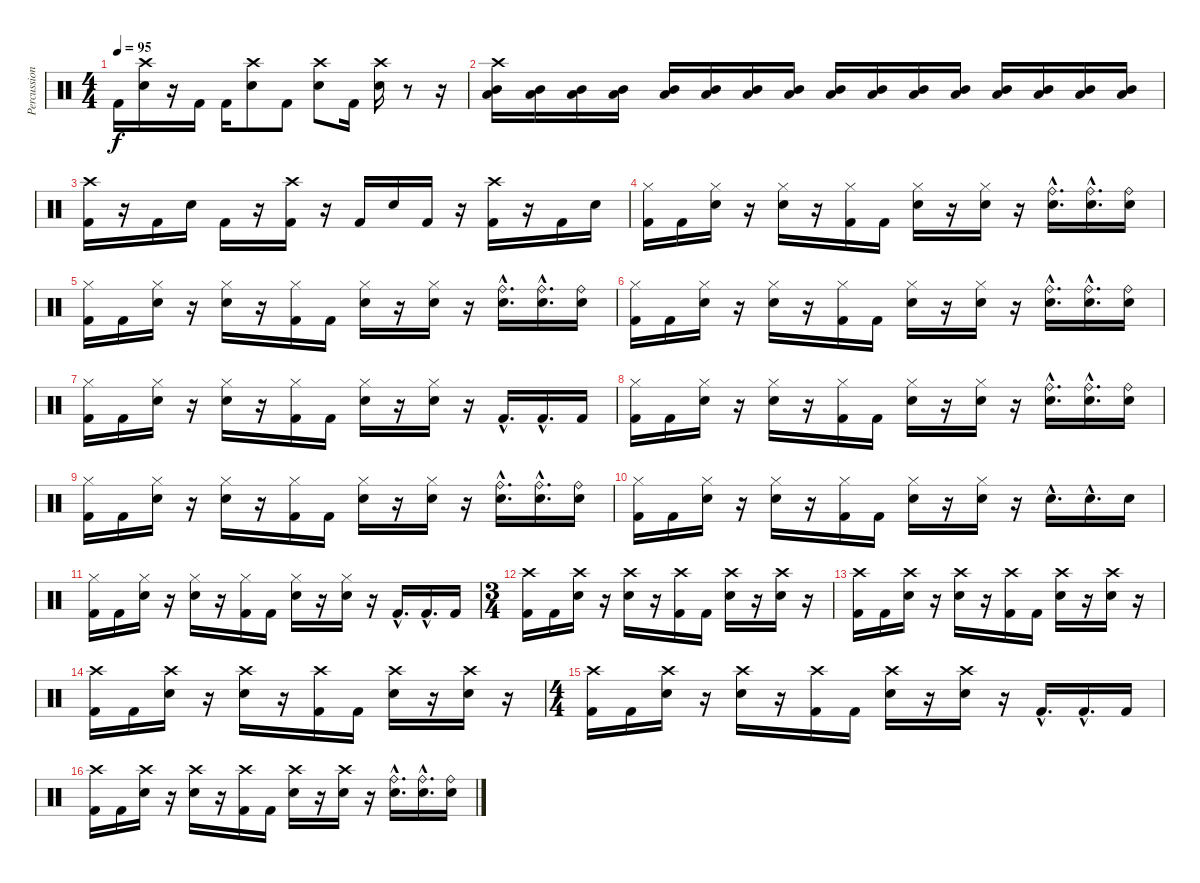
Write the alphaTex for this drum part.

\track ("Percussion" "Percussion") {instrument percussion}
\staff {score}
\articulation defaults
\ts (4 4)
\tempo 95
\clef neutral
\ks c "Kick (hit) 2".16{dy f}
("Crash high (hit)" "Electric Snare (hit)").16 r.16 "Kick (hit) 2".16 "Kick (hit) 2".16 ("Crash high (hit)" "Electric Snare (hit)").8 "Kick (hit) 2".8 ("Crash high (hit)" "Electric Snare (hit)").8 "Kick (hit) 2".16 ("Crash high (hit)" "Electric Snare (hit)").16 r.8 r.16 |
("Crash high (hit)" "Mid Tom (hit)" "Low Tom (hit)").16 ("Mid Tom (hit)" "Low Tom (hit)").16 ("Mid Tom (hit)" "Low Tom (hit)").16 ("Mid Tom (hit)" "Low Tom (hit)").16 ("Mid Tom (hit)" "Low Tom (hit)").16 ("Mid Tom (hit)" "Low Tom (hit)").16 ("Mid Tom (hit)" "Low Tom (hit)").16 ("Mid Tom (hit)" "Low Tom (hit)").16 ("Mid Tom (hit)" "Low Tom (hit)").16 ("Mid Tom (hit)" "Low Tom (hit)").16 ("Mid Tom (hit)" "Low Tom (hit)").16 ("Mid Tom (hit)" "Low Tom (hit)").16 ("Mid Tom (hit)" "Low Tom (hit)").16 ("Mid Tom (hit)" "Low Tom (hit)").16 ("Mid Tom (hit)" "Low Tom (hit)").16 ("Mid Tom (hit)" "Low Tom (hit)").16 |
("Crash high (hit)" "Kick (hit) 2").16 r.16 "Kick (hit) 2".16 "Electric Snare (hit)".16 "Kick (hit) 2".16 r.16 ("Crash high (hit)" "Kick (hit) 2").16 r.16 "Kick (hit) 2".16 "Electric Snare (hit)".16 "Kick (hit) 2".16 r.16 ("Crash high (hit)" "Kick (hit) 2").16 r.16 "Kick (hit) 2".16 "Electric Snare (hit)".16 |
("Hi-Hat (closed)" "Kick (hit) 2").16{volume 7} "Kick (hit) 2".16 ("Hi-Hat (closed)" "Electric Snare (hit)").16 r.16 ("Hi-Hat (closed)" "Electric Snare (hit)").16 r.16 ("Hi-Hat (closed)" "Kick (hit) 2").16 "Kick (hit) 2".16 ("Hi-Hat (closed)" "Electric Snare (hit)").16 r.16 ("Hi-Hat (closed)" "Electric Snare (hit)").16 r.16 ("Ride (bell)"{hac} "Snare (hit) 2"{hac}).16{d} ("Ride (bell)"{hac} "Snare (hit) 2"{hac}).16{d} ("Ride (bell)" "Snare (hit) 2").16 |
("Hi-Hat (closed)" "Kick (hit) 2").16 "Kick (hit) 2".16 ("Hi-Hat (closed)" "Electric Snare (hit)").16 r.16 ("Hi-Hat (closed)" "Electric Snare (hit)").16 r.16 ("Hi-Hat (closed)" "Kick (hit) 2").16 "Kick (hit) 2".16 ("Hi-Hat (closed)" "Electric Snare (hit)").16 r.16 ("Hi-Hat (closed)" "Electric Snare (hit)").16 r.16 ("Ride (bell)"{hac} "Snare (hit) 2"{hac}).16{d} ("Ride (bell)"{hac} "Snare (hit) 2"{hac}).16{d} ("Ride (bell)" "Snare (hit) 2").16 |
("Hi-Hat (closed)" "Kick (hit) 2").16 "Kick (hit) 2".16 ("Hi-Hat (closed)" "Electric Snare (hit)").16 r.16 ("Hi-Hat (closed)" "Electric Snare (hit)").16 r.16 ("Hi-Hat (closed)" "Kick (hit) 2").16 "Kick (hit) 2".16 ("Hi-Hat (closed)" "Electric Snare (hit)").16 r.16 ("Hi-Hat (closed)" "Electric Snare (hit)").16 r.16 ("Ride (bell)"{hac} "Snare (hit) 2"{hac}).16{d} ("Ride (bell)"{hac} "Snare (hit) 2"{hac}).16{d} ("Ride (bell)" "Snare (hit) 2").16 |
("Hi-Hat (closed)" "Kick (hit) 2").16 "Kick (hit) 2".16 ("Hi-Hat (closed)" "Electric Snare (hit)").16 r.16 ("Hi-Hat (closed)" "Electric Snare (hit)").16 r.16 ("Hi-Hat (closed)" "Kick (hit) 2").16 "Kick (hit) 2".16 ("Hi-Hat (closed)" "Electric Snare (hit)").16 r.16 ("Hi-Hat (closed)" "Electric Snare (hit)").16 r.16 "Kick (hit) 2"{hac}.16{d} "Kick (hit) 2"{hac}.16{d} "Kick (hit) 2".16 |
("Hi-Hat (closed)" "Kick (hit) 2").16{volume 7} "Kick (hit) 2".16 ("Hi-Hat (closed)" "Electric Snare (hit)").16 r.16 ("Hi-Hat (closed)" "Electric Snare (hit)").16 r.16 ("Hi-Hat (closed)" "Kick (hit) 2").16 "Kick (hit) 2".16 ("Hi-Hat (closed)" "Electric Snare (hit)").16 r.16 ("Hi-Hat (closed)" "Electric Snare (hit)").16 r.16 ("Ride (bell)"{hac} "Snare (hit) 2"{hac}).16{d} ("Ride (bell)"{hac} "Snare (hit) 2"{hac}).16{d} ("Ride (bell)" "Snare (hit) 2").16 |
("Hi-Hat (closed)" "Kick (hit) 2").16 "Kick (hit) 2".16 ("Hi-Hat (closed)" "Electric Snare (hit)").16 r.16 ("Hi-Hat (closed)" "Electric Snare (hit)").16 r.16 ("Hi-Hat (closed)" "Kick (hit) 2").16 "Kick (hit) 2".16 ("Hi-Hat (closed)" "Electric Snare (hit)").16 r.16 ("Hi-Hat (closed)" "Electric Snare (hit)").16 r.16 ("Ride (bell)"{hac} "Snare (hit) 2"{hac}).16{d} ("Ride (bell)"{hac} "Snare (hit) 2"{hac}).16{d} ("Ride (bell)" "Snare (hit) 2").16 |
("Hi-Hat (closed)" "Kick (hit) 2").16{volume 13} "Kick (hit) 2".16 ("Hi-Hat (closed)" "Electric Snare (hit)").16 r.16 ("Hi-Hat (closed)" "Electric Snare (hit)").16 r.16 ("Hi-Hat (closed)" "Kick (hit) 2").16 "Kick (hit) 2".16 ("Hi-Hat (closed)" "Electric Snare (hit)").16 r.16 ("Hi-Hat (closed)" "Electric Snare (hit)").16 r.16 "Electric Snare (hit)"{hac}.16{d} "Electric Snare (hit)"{hac}.16{d} "Electric Snare (hit)".16 |
("Hi-Hat (closed)" "Kick (hit) 2").16 "Kick (hit) 2".16 ("Hi-Hat (closed)" "Electric Snare (hit)").16 r.16 ("Hi-Hat (closed)" "Electric Snare (hit)").16 r.16 ("Hi-Hat (closed)" "Kick (hit) 2").16 "Kick (hit) 2".16 ("Hi-Hat (closed)" "Electric Snare (hit)").16 r.16 ("Hi-Hat (closed)" "Electric Snare (hit)").16 r.16 "Kick (hit) 2"{hac}.16{d} "Kick (hit) 2"{hac}.16{d} "Kick (hit) 2".16 |
\ts (3 4)
("Crash high (hit)" "Kick (hit) 2").16 "Kick (hit) 2".16 ("Crash high (hit)" "Electric Snare (hit)").16 r.16 ("Crash high (hit)" "Electric Snare (hit)").16 r.16 ("Crash high (hit)" "Kick (hit) 2").16 "Kick (hit) 2".16 ("Crash high (hit)" "Electric Snare (hit)").16 r.16 ("Crash high (hit)" "Electric Snare (hit)").16 r.16 |
("Crash high (hit)" "Kick (hit) 2").16 "Kick (hit) 2".16 ("Crash high (hit)" "Electric Snare (hit)").16 r.16 ("Crash high (hit)" "Electric Snare (hit)").16 r.16 ("Crash high (hit)" "Kick (hit) 2").16 "Kick (hit) 2".16 ("Crash high (hit)" "Electric Snare (hit)").16 r.16 ("Crash high (hit)" "Electric Snare (hit)").16 r.16 |
("Crash high (hit)" "Kick (hit) 2").16 "Kick (hit) 2".16 ("Crash high (hit)" "Electric Snare (hit)").16 r.16 ("Crash high (hit)" "Electric Snare (hit)").16 r.16 ("Crash high (hit)" "Kick (hit) 2").16 "Kick (hit) 2".16 ("Crash high (hit)" "Electric Snare (hit)").16 r.16 ("Crash high (hit)" "Electric Snare (hit)").16 r.16 |
\ts (4 4)
("Crash high (hit)" "Kick (hit) 2").16 "Kick (hit) 2".16 ("Crash high (hit)" "Electric Snare (hit)").16 r.16 ("Crash high (hit)" "Electric Snare (hit)").16 r.16 ("Crash high (hit)" "Kick (hit) 2").16 "Kick (hit) 2".16 ("Crash high (hit)" "Electric Snare (hit)").16 r.16 ("Crash high (hit)" "Electric Snare (hit)").16 r.16 "Kick (hit) 2"{hac}.16{d} "Kick (hit) 2"{hac}.16{d} "Kick (hit) 2".16 |
("Crash high (hit)" "Kick (hit) 2").16 "Kick (hit) 2".16 ("Crash high (hit)" "Electric Snare (hit)").16 r.16 ("Crash high (hit)" "Electric Snare (hit)").16 r.16 ("Crash high (hit)" "Kick (hit) 2").16 "Kick (hit) 2".16 ("Crash high (hit)" "Electric Snare (hit)").16 r.16 ("Crash high (hit)" "Electric Snare (hit)").16 r.16 ("Ride (bell)"{hac} "Snare (hit) 2"{hac}).16{d} ("Ride (bell)"{hac} "Snare (hit) 2"{hac}).16{d} ("Ride (bell)" "Snare (hit) 2").16
